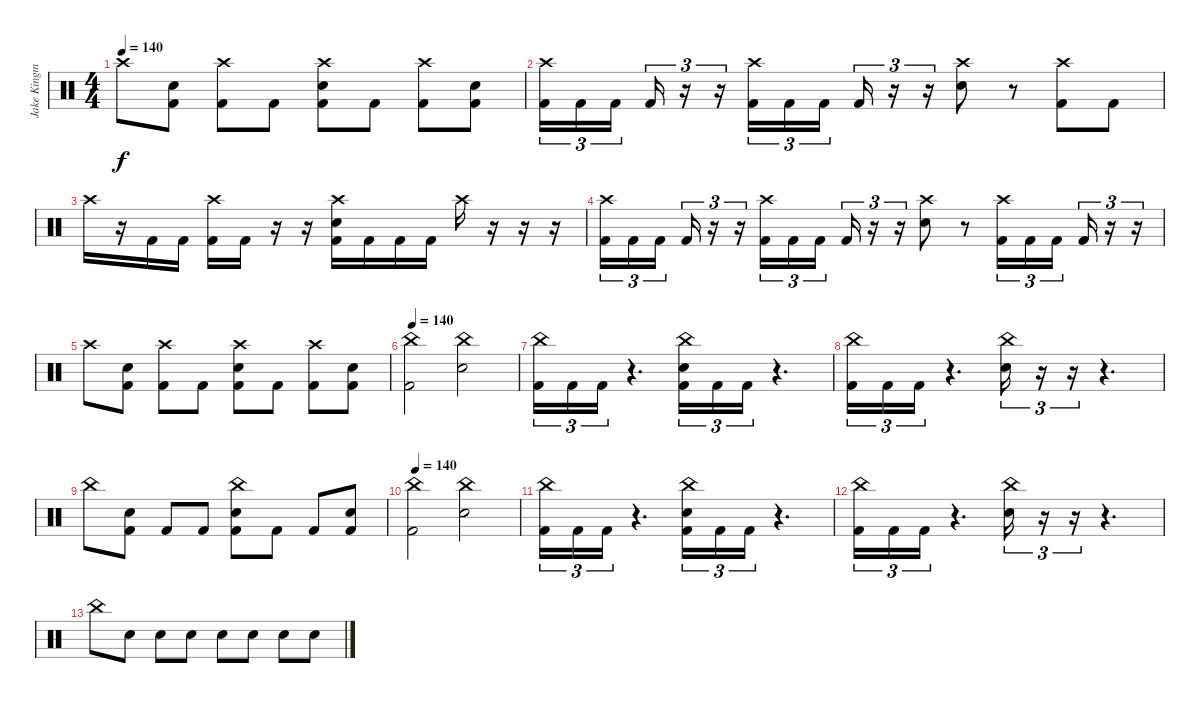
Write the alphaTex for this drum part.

\track ("Jake Kingman (Drums)" "Jake Kingm") {instrument percussion}
\staff {score}
\articulation defaults
\ts (4 4)
\tempo 140
\clef neutral
\ks c "Crash high (hit)".8{dy f}
("Electric Snare (hit)" "Kick (hit) 2").8 ("Crash high (hit)" "Kick (hit) 2").8 "Kick (hit) 2".8 ("Crash high (hit)" "Electric Snare (hit)" "Kick (hit) 2").8 "Kick (hit) 2".8 ("Crash high (hit)" "Kick (hit) 2").8 ("Electric Snare (hit)" "Kick (hit) 2").8 |
("Crash high (hit)" "Kick (hit) 2").16{tu (3 2)} "Kick (hit) 2".16{tu (3 2)} "Kick (hit) 2".16{tu (3 2) beam splitsecondary} "Kick (hit) 2".16{tu (3 2)} r.16{tu (3 2)} r.16{tu (3 2)} ("Crash high (hit)" "Kick (hit) 2").16{tu (3 2)} "Kick (hit) 2".16{tu (3 2)} "Kick (hit) 2".16{tu (3 2) beam splitsecondary} "Kick (hit) 2".16{tu (3 2)} r.16{tu (3 2)} r.16{tu (3 2)} ("Crash high (hit)" "Electric Snare (hit)").8 r.8 ("Crash high (hit)" "Kick (hit) 2").8 "Kick (hit) 2".8 |
"Crash high (hit)".16 r.16 "Kick (hit) 2".16 "Kick (hit) 2".16 ("Crash high (hit)" "Kick (hit) 2").16 "Kick (hit) 2".16 r.16 r.16 ("Crash high (hit)" "Electric Snare (hit)" "Kick (hit) 2").16 "Kick (hit) 2".16 "Kick (hit) 2".16 "Kick (hit) 2".16 "Crash high (hit)".16 r.16 r.16 r.16 |
("Crash high (hit)" "Kick (hit) 2").16{tu (3 2)} "Kick (hit) 2".16{tu (3 2)} "Kick (hit) 2".16{tu (3 2) beam splitsecondary} "Kick (hit) 2".16{tu (3 2)} r.16{tu (3 2)} r.16{tu (3 2)} ("Crash high (hit)" "Kick (hit) 2").16{tu (3 2)} "Kick (hit) 2".16{tu (3 2)} "Kick (hit) 2".16{tu (3 2) beam splitsecondary} "Kick (hit) 2".16{tu (3 2)} r.16{tu (3 2)} r.16{tu (3 2)} ("Crash high (hit)" "Electric Snare (hit)").8 r.8 ("Crash high (hit)" "Kick (hit) 2").16{tu (3 2)} "Kick (hit) 2".16{tu (3 2)} "Kick (hit) 2".16{tu (3 2) beam splitsecondary} "Kick (hit) 2".16{tu (3 2)} r.16{tu (3 2)} r.16{tu (3 2)} |
"Crash high (hit)".8 ("Electric Snare (hit)" "Kick (hit) 2").8 ("Crash high (hit)" "Kick (hit) 2").8 "Kick (hit) 2".8 ("Crash high (hit)" "Electric Snare (hit)" "Kick (hit) 2").8 "Kick (hit) 2".8 ("Crash high (hit)" "Kick (hit) 2").8 ("Electric Snare (hit)" "Kick (hit) 2").8 |
\tempo 140
("China (hit)" "Kick (hit) 2").2 ("China (hit)" "Electric Snare (hit)").2 |
("China (hit)" "Kick (hit) 2").16{tu (3 2)} "Kick (hit) 2".16{tu (3 2)} "Kick (hit) 2".16{tu (3 2)} r.4{d} ("China (hit)" "Electric Snare (hit)" "Kick (hit) 2").16{tu (3 2)} "Kick (hit) 2".16{tu (3 2)} "Kick (hit) 2".16{tu (3 2)} r.4{d} |
("China (hit)" "Kick (hit) 2").16{tu (3 2)} "Kick (hit) 2".16{tu (3 2)} "Kick (hit) 2".16{tu (3 2)} r.4{d} ("China (hit)" "Electric Snare (hit)").16{tu (3 2)} r.16{tu (3 2)} r.16{tu (3 2)} r.4{d} |
"China (hit)".8 ("Electric Snare (hit)" "Kick (hit) 2").8 "Kick (hit) 2".8 "Kick (hit) 2".8 ("China (hit)" "Electric Snare (hit)" "Kick (hit) 2").8 "Kick (hit) 2".8 "Kick (hit) 2".8 ("Electric Snare (hit)" "Kick (hit) 2").8 |
\tempo 140
("China (hit)" "Kick (hit) 2").2 ("China (hit)" "Electric Snare (hit)").2 |
("China (hit)" "Kick (hit) 2").16{tu (3 2)} "Kick (hit) 2".16{tu (3 2)} "Kick (hit) 2".16{tu (3 2)} r.4{d} ("China (hit)" "Electric Snare (hit)" "Kick (hit) 2").16{tu (3 2)} "Kick (hit) 2".16{tu (3 2)} "Kick (hit) 2".16{tu (3 2)} r.4{d} |
("China (hit)" "Kick (hit) 2").16{tu (3 2)} "Kick (hit) 2".16{tu (3 2)} "Kick (hit) 2".16{tu (3 2)} r.4{d} ("China (hit)" "Electric Snare (hit)").16{tu (3 2)} r.16{tu (3 2)} r.16{tu (3 2)} r.4{d} |
"China (hit)".8 "Electric Snare (hit)".8 "Electric Snare (hit)".8 "Electric Snare (hit)".8 "Electric Snare (hit)".8 "Electric Snare (hit)".8 "Electric Snare (hit)".8 "Electric Snare (hit)".8
